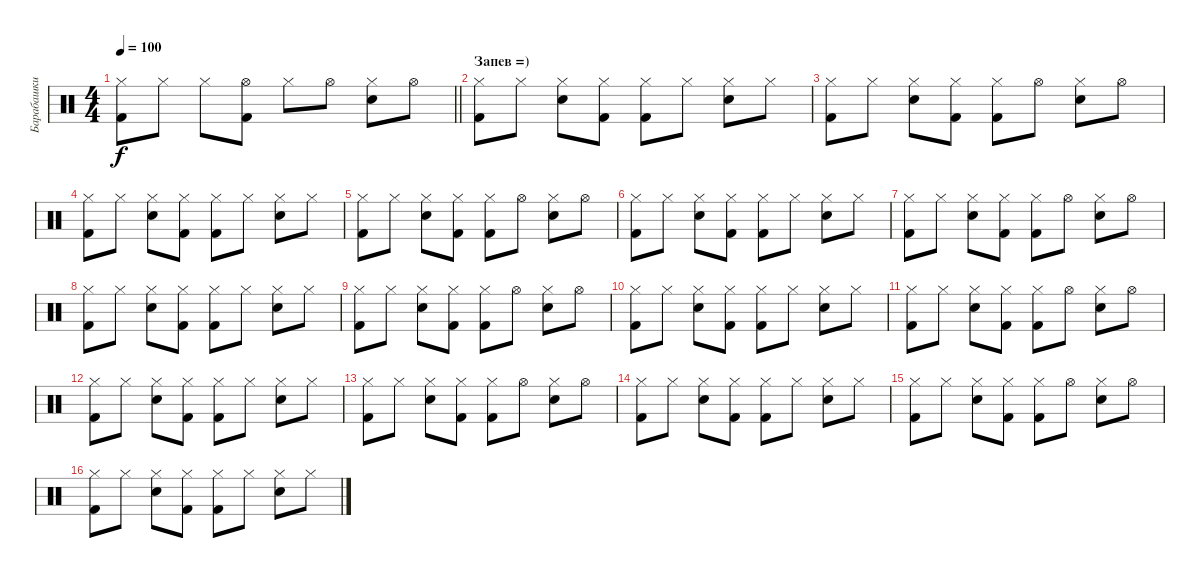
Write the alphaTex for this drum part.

\track ("Барабашки" "Барабашки") {instrument percussion}
\staff {score}
\articulation defaults
\ts (4 4)
\tempo 100
\clef neutral
\barLineRight lightlight
\ks c
("Hi-Hat (closed)" "Kick (hit) 2").8{dy f} "Hi-Hat (closed)".8 "Hi-Hat (closed)".8 ("Hi-Hat (open)" "Kick (hit) 2").8 "Hi-Hat (closed)".8 "Hi-Hat (open)".8 ("Hi-Hat (closed)" "Electric Snare (hit)").8 "Hi-Hat (open)".8 |
\section ("" "Запев =)")
("Hi-Hat (closed)" "Kick (hit) 2").8 "Hi-Hat (closed)".8 ("Hi-Hat (closed)" "Electric Snare (hit)").8 ("Hi-Hat (closed)" "Kick (hit) 2").8 ("Hi-Hat (closed)" "Kick (hit) 2").8 "Hi-Hat (closed)".8 ("Hi-Hat (closed)" "Electric Snare (hit)").8 "Hi-Hat (closed)".8 |
("Hi-Hat (closed)" "Kick (hit) 2").8 "Hi-Hat (closed)".8 ("Hi-Hat (closed)" "Electric Snare (hit)").8 ("Hi-Hat (closed)" "Kick (hit) 2").8 ("Hi-Hat (closed)" "Kick (hit) 2").8 "Hi-Hat (open)".8 ("Hi-Hat (closed)" "Electric Snare (hit)").8 "Hi-Hat (open)".8 |
("Hi-Hat (closed)" "Kick (hit) 2").8 "Hi-Hat (closed)".8 ("Hi-Hat (closed)" "Electric Snare (hit)").8 ("Hi-Hat (closed)" "Kick (hit) 2").8 ("Hi-Hat (closed)" "Kick (hit) 2").8 "Hi-Hat (closed)".8 ("Hi-Hat (closed)" "Electric Snare (hit)").8 "Hi-Hat (closed)".8 |
("Hi-Hat (closed)" "Kick (hit) 2").8 "Hi-Hat (closed)".8 ("Hi-Hat (closed)" "Electric Snare (hit)").8 ("Hi-Hat (closed)" "Kick (hit) 2").8 ("Hi-Hat (closed)" "Kick (hit) 2").8 "Hi-Hat (open)".8 ("Hi-Hat (closed)" "Electric Snare (hit)").8 "Hi-Hat (open)".8 |
("Hi-Hat (closed)" "Kick (hit) 2").8 "Hi-Hat (closed)".8 ("Hi-Hat (closed)" "Electric Snare (hit)").8 ("Hi-Hat (closed)" "Kick (hit) 2").8 ("Hi-Hat (closed)" "Kick (hit) 2").8 "Hi-Hat (closed)".8 ("Hi-Hat (closed)" "Electric Snare (hit)").8 "Hi-Hat (closed)".8 |
("Hi-Hat (closed)" "Kick (hit) 2").8 "Hi-Hat (closed)".8 ("Hi-Hat (closed)" "Electric Snare (hit)").8 ("Hi-Hat (closed)" "Kick (hit) 2").8 ("Hi-Hat (closed)" "Kick (hit) 2").8 "Hi-Hat (open)".8 ("Hi-Hat (closed)" "Electric Snare (hit)").8 "Hi-Hat (open)".8 |
("Hi-Hat (closed)" "Kick (hit) 2").8 "Hi-Hat (closed)".8 ("Hi-Hat (closed)" "Electric Snare (hit)").8 ("Hi-Hat (closed)" "Kick (hit) 2").8 ("Hi-Hat (closed)" "Kick (hit) 2").8 "Hi-Hat (closed)".8 ("Hi-Hat (closed)" "Electric Snare (hit)").8 "Hi-Hat (closed)".8 |
("Hi-Hat (closed)" "Kick (hit) 2").8 "Hi-Hat (closed)".8 ("Hi-Hat (closed)" "Electric Snare (hit)").8 ("Hi-Hat (closed)" "Kick (hit) 2").8 ("Hi-Hat (closed)" "Kick (hit) 2").8 "Hi-Hat (open)".8 ("Hi-Hat (closed)" "Electric Snare (hit)").8 "Hi-Hat (open)".8 |
("Hi-Hat (closed)" "Kick (hit) 2").8 "Hi-Hat (closed)".8 ("Hi-Hat (closed)" "Electric Snare (hit)").8 ("Hi-Hat (closed)" "Kick (hit) 2").8 ("Hi-Hat (closed)" "Kick (hit) 2").8 "Hi-Hat (closed)".8 ("Hi-Hat (closed)" "Electric Snare (hit)").8 "Hi-Hat (closed)".8 |
("Hi-Hat (closed)" "Kick (hit) 2").8 "Hi-Hat (closed)".8 ("Hi-Hat (closed)" "Electric Snare (hit)").8 ("Hi-Hat (closed)" "Kick (hit) 2").8 ("Hi-Hat (closed)" "Kick (hit) 2").8 "Hi-Hat (open)".8 ("Hi-Hat (closed)" "Electric Snare (hit)").8 "Hi-Hat (open)".8 |
("Hi-Hat (closed)" "Kick (hit) 2").8 "Hi-Hat (closed)".8 ("Hi-Hat (closed)" "Electric Snare (hit)").8 ("Hi-Hat (closed)" "Kick (hit) 2").8 ("Hi-Hat (closed)" "Kick (hit) 2").8 "Hi-Hat (closed)".8 ("Hi-Hat (closed)" "Electric Snare (hit)").8 "Hi-Hat (closed)".8 |
("Hi-Hat (closed)" "Kick (hit) 2").8 "Hi-Hat (closed)".8 ("Hi-Hat (closed)" "Electric Snare (hit)").8 ("Hi-Hat (closed)" "Kick (hit) 2").8 ("Hi-Hat (closed)" "Kick (hit) 2").8 "Hi-Hat (open)".8 ("Hi-Hat (closed)" "Electric Snare (hit)").8 "Hi-Hat (open)".8 |
("Hi-Hat (closed)" "Kick (hit) 2").8 "Hi-Hat (closed)".8 ("Hi-Hat (closed)" "Electric Snare (hit)").8 ("Hi-Hat (closed)" "Kick (hit) 2").8 ("Hi-Hat (closed)" "Kick (hit) 2").8 "Hi-Hat (closed)".8 ("Hi-Hat (closed)" "Electric Snare (hit)").8 "Hi-Hat (closed)".8 |
("Hi-Hat (closed)" "Kick (hit) 2").8 "Hi-Hat (closed)".8 ("Hi-Hat (closed)" "Electric Snare (hit)").8 ("Hi-Hat (closed)" "Kick (hit) 2").8 ("Hi-Hat (closed)" "Kick (hit) 2").8 "Hi-Hat (open)".8 ("Hi-Hat (closed)" "Electric Snare (hit)").8 "Hi-Hat (open)".8 |
("Hi-Hat (closed)" "Kick (hit) 2").8 "Hi-Hat (closed)".8 ("Hi-Hat (closed)" "Electric Snare (hit)").8 ("Hi-Hat (closed)" "Kick (hit) 2").8 ("Hi-Hat (closed)" "Kick (hit) 2").8 "Hi-Hat (closed)".8 ("Hi-Hat (closed)" "Electric Snare (hit)").8 "Hi-Hat (closed)".8
